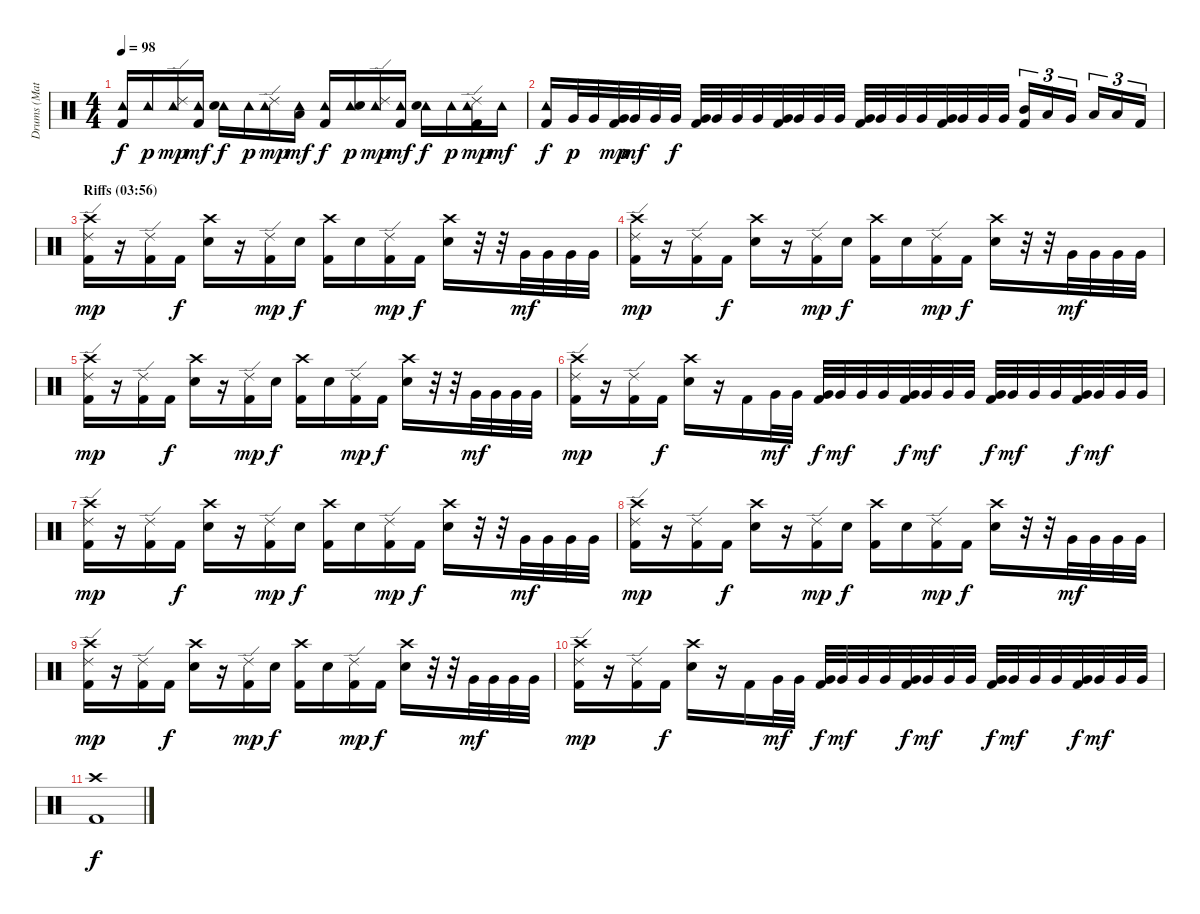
\track ("Drums (Matt Sorum)" "Drums (Mat") {instrument percussion}
\staff {score}
\articulation defaults
\ts (4 4)
\tempo 98
\clef neutral
\ks c
("Tambourine (hit)" "Kick (hit) 2").16{dy f} "Tambourine (hit)".16{dy p} ("Tambourine (hit)" "Ride (edge) 2").16{dy mp} ("Tambourine (hit)" "Kick (hit) 2").16{dy mf} ("Tambourine (hit)" "Electric Snare (hit)").16{dy f} "Tambourine (hit)".16{dy p} ("Tambourine (hit)" "Ride (edge) 2").16{dy mp} ("Tambourine (hit)" "Low Tom (hit)").16{dy mf} ("Tambourine (hit)" "Kick (hit) 2").16{dy f} ("Tambourine (hit)" "Electric Snare (hit)").16{dy p} ("Tambourine (hit)" "Ride (edge) 2").16{dy mp} ("Tambourine (hit)" "Kick (hit) 2").16{dy mf} ("Tambourine (hit)" "Electric Snare (hit)").16{dy f} "Tambourine (hit)".16{dy p} ("Tambourine (hit)" "Ride (edge) 2" "Kick (hit) 2").16{dy mp} "Tambourine (hit)".16{dy mf} |
("Tambourine (hit)" "Kick (hit) 2").16{dy f} "Very Low Tom (hit)".32{dy p} "Very Low Tom (hit)".32 ("Very Low Tom (hit)" "Kick (hit) 2").32{dy mp} "Very Low Tom (hit)".32{dy mf} "Very Low Tom (hit)".32 "Very Low Tom (hit)".32{dy f} ("Very Low Tom (hit)" "Kick (hit) 2").32 "Very Low Tom (hit)".32 "Very Low Tom (hit)".32 "Very Low Tom (hit)".32 ("Very Low Tom (hit)" "Kick (hit) 2").32 "Very Low Tom (hit)".32 "Very Low Tom (hit)".32 "Very Low Tom (hit)".32 ("Very Low Tom (hit)" "Kick (hit) 2").32 "Very Low Tom (hit)".32 "Very Low Tom (hit)".32 "Very Low Tom (hit)".32 ("Very Low Tom (hit)" "Kick (hit) 2").32 "Very Low Tom (hit)".32 "Very Low Tom (hit)".32 "Very Low Tom (hit)".32 ("Mid Tom (hit)" "Kick (hit) 2").16{tu (3 2)} "Low Tom (hit)".16{tu (3 2)} "Very Low Tom (hit)".16{tu (3 2)} "Low Floor Tom (hit)".16{tu (3 2)} "Low Floor Tom (hit)".16{tu (3 2)} "Kick (hit) 2".16{tu (3 2)} |
\section ("" "Riffs (03:56)")
("Crash high (hit)" "Ride (edge) 2" "Kick (hit) 2").16{dy mp} r.16 ("Ride (edge) 2" "Kick (hit) 2").16 "Kick (hit) 2".16{dy f} ("Crash high (hit)" "Electric Snare (hit)").16 r.16 ("Ride (edge) 2" "Kick (hit) 2").16{dy mp} "Electric Snare (hit)".16{dy f} ("Crash high (hit)" "Kick (hit) 2").16 "Electric Snare (hit)".16 ("Ride (edge) 2" "Kick (hit) 2").16{dy mp} "Kick (hit) 2".16{dy f} ("Crash high (hit)" "Electric Snare (hit)").16 r.32 r.32 "Very Low Tom (hit)".32{dy mf} "Very Low Tom (hit)".32 "Very Low Tom (hit)".32 "Very Low Tom (hit)".32 |
("Crash high (hit)" "Ride (edge) 2" "Kick (hit) 2").16{dy mp} r.16 ("Ride (edge) 2" "Kick (hit) 2").16 "Kick (hit) 2".16{dy f} ("Crash high (hit)" "Electric Snare (hit)").16 r.16 ("Ride (edge) 2" "Kick (hit) 2").16{dy mp} "Electric Snare (hit)".16{dy f} ("Crash high (hit)" "Kick (hit) 2").16 "Electric Snare (hit)".16 ("Ride (edge) 2" "Kick (hit) 2").16{dy mp} "Kick (hit) 2".16{dy f} ("Crash high (hit)" "Electric Snare (hit)").16 r.32 r.32 "Very Low Tom (hit)".32{dy mf} "Very Low Tom (hit)".32 "Very Low Tom (hit)".32 "Very Low Tom (hit)".32 |
("Crash high (hit)" "Ride (edge) 2" "Kick (hit) 2").16{dy mp} r.16 ("Ride (edge) 2" "Kick (hit) 2").16 "Kick (hit) 2".16{dy f} ("Crash high (hit)" "Electric Snare (hit)").16 r.16 ("Ride (edge) 2" "Kick (hit) 2").16{dy mp} "Electric Snare (hit)".16{dy f} ("Crash high (hit)" "Kick (hit) 2").16 "Electric Snare (hit)".16 ("Ride (edge) 2" "Kick (hit) 2").16{dy mp} "Kick (hit) 2".16{dy f} ("Crash high (hit)" "Electric Snare (hit)").16 r.32 r.32 "Very Low Tom (hit)".32{dy mf} "Very Low Tom (hit)".32 "Very Low Tom (hit)".32 "Very Low Tom (hit)".32 |
("Crash high (hit)" "Ride (edge) 2" "Kick (hit) 2").16{dy mp} r.16 ("Ride (edge) 2" "Kick (hit) 2").16 "Kick (hit) 2".16{dy f} ("Crash high (hit)" "Electric Snare (hit)").16 r.16 "Kick (hit) 2".16 "Very Low Tom (hit)".32{dy mf} "Very Low Tom (hit)".32 ("Very Low Tom (hit)" "Kick (hit) 2").32{dy f} "Very Low Tom (hit)".32{dy mf} "Very Low Tom (hit)".32 "Very Low Tom (hit)".32 ("Very Low Tom (hit)" "Kick (hit) 2").32{dy f} "Very Low Tom (hit)".32{dy mf} "Very Low Tom (hit)".32 "Very Low Tom (hit)".32 ("Very Low Tom (hit)" "Kick (hit) 2").32{dy f} "Very Low Tom (hit)".32{dy mf} "Very Low Tom (hit)".32 "Very Low Tom (hit)".32 ("Very Low Tom (hit)" "Kick (hit) 2").32{dy f} "Very Low Tom (hit)".32{dy mf} "Very Low Tom (hit)".32 "Very Low Tom (hit)".32 |
("Crash high (hit)" "Ride (edge) 2" "Kick (hit) 2").16{dy mp} r.16 ("Ride (edge) 2" "Kick (hit) 2").16 "Kick (hit) 2".16{dy f} ("Crash high (hit)" "Electric Snare (hit)").16 r.16 ("Ride (edge) 2" "Kick (hit) 2").16{dy mp} "Electric Snare (hit)".16{dy f} ("Crash high (hit)" "Kick (hit) 2").16 "Electric Snare (hit)".16 ("Ride (edge) 2" "Kick (hit) 2").16{dy mp} "Kick (hit) 2".16{dy f} ("Crash high (hit)" "Electric Snare (hit)").16 r.32 r.32 "Very Low Tom (hit)".32{dy mf} "Very Low Tom (hit)".32 "Very Low Tom (hit)".32 "Very Low Tom (hit)".32 |
("Crash high (hit)" "Ride (edge) 2" "Kick (hit) 2").16{dy mp} r.16 ("Ride (edge) 2" "Kick (hit) 2").16 "Kick (hit) 2".16{dy f} ("Crash high (hit)" "Electric Snare (hit)").16 r.16 ("Ride (edge) 2" "Kick (hit) 2").16{dy mp} "Electric Snare (hit)".16{dy f} ("Crash high (hit)" "Kick (hit) 2").16 "Electric Snare (hit)".16 ("Ride (edge) 2" "Kick (hit) 2").16{dy mp} "Kick (hit) 2".16{dy f} ("Crash high (hit)" "Electric Snare (hit)").16 r.32 r.32 "Very Low Tom (hit)".32{dy mf} "Very Low Tom (hit)".32 "Very Low Tom (hit)".32 "Very Low Tom (hit)".32 |
("Crash high (hit)" "Ride (edge) 2" "Kick (hit) 2").16{dy mp} r.16 ("Ride (edge) 2" "Kick (hit) 2").16 "Kick (hit) 2".16{dy f} ("Crash high (hit)" "Electric Snare (hit)").16 r.16 ("Ride (edge) 2" "Kick (hit) 2").16{dy mp} "Electric Snare (hit)".16{dy f} ("Crash high (hit)" "Kick (hit) 2").16 "Electric Snare (hit)".16 ("Ride (edge) 2" "Kick (hit) 2").16{dy mp} "Kick (hit) 2".16{dy f} ("Crash high (hit)" "Electric Snare (hit)").16 r.32 r.32 "Very Low Tom (hit)".32{dy mf} "Very Low Tom (hit)".32 "Very Low Tom (hit)".32 "Very Low Tom (hit)".32 |
("Crash high (hit)" "Ride (edge) 2" "Kick (hit) 2").16{dy mp} r.16 ("Ride (edge) 2" "Kick (hit) 2").16 "Kick (hit) 2".16{dy f} ("Crash high (hit)" "Electric Snare (hit)").16 r.16 "Kick (hit) 2".16 "Very Low Tom (hit)".32{dy mf} "Very Low Tom (hit)".32 ("Very Low Tom (hit)" "Kick (hit) 2").32{dy f} "Very Low Tom (hit)".32{dy mf} "Very Low Tom (hit)".32 "Very Low Tom (hit)".32 ("Very Low Tom (hit)" "Kick (hit) 2").32{dy f} "Very Low Tom (hit)".32{dy mf} "Very Low Tom (hit)".32 "Very Low Tom (hit)".32 ("Very Low Tom (hit)" "Kick (hit) 2").32{dy f} "Very Low Tom (hit)".32{dy mf} "Very Low Tom (hit)".32 "Very Low Tom (hit)".32 ("Very Low Tom (hit)" "Kick (hit) 2").32{dy f} "Very Low Tom (hit)".32{dy mf} "Very Low Tom (hit)".32 "Very Low Tom (hit)".32 |
("Crash high (hit)" "Kick (hit) 2").1{dy f}
